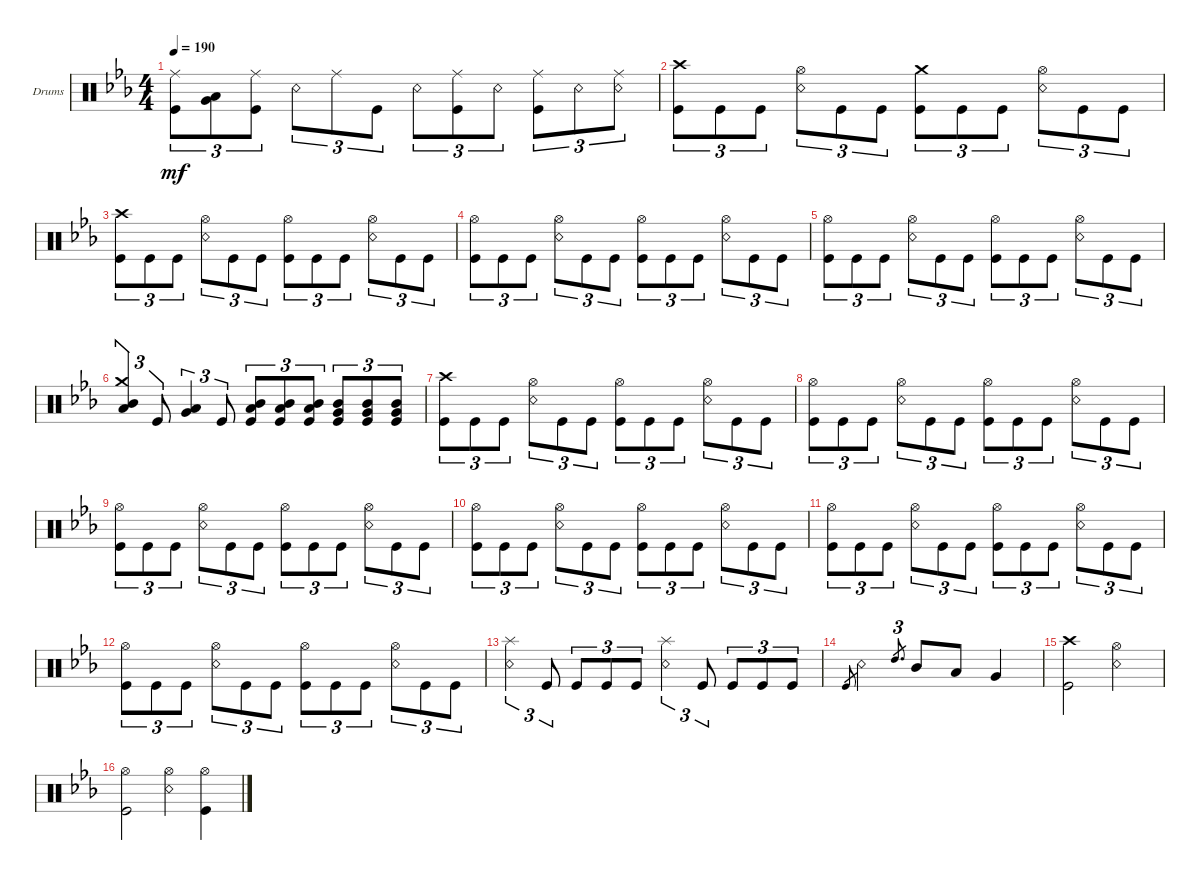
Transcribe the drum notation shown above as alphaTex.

\defaultSystemsLayout 4
\bracketExtendMode groupsimilarinstruments
\firstSystemTrackNameOrientation horizontal
\otherSystemsTrackNameOrientation horizontal
\track ("Drumkit" "Drums") {instrument percussion}
\staff {score}
\articulation defaults
\ts (4 4)
\tempo 190
\clef neutral
\ks cminor
("Ride (middle)" "Kick (hit)").8{tu (3 2) dy mf} ("Low Tom (hit)" "Very Low Tom (hit)").8{tu (3 2)} ("Ride (middle)" "Kick (hit)").8{tu (3 2)} "Snare (rim shot)".8{tu (3 2)} "Ride (middle)".8{tu (3 2)} "Kick (hit)".8{tu (3 2)} "Snare (rim shot)".8{tu (3 2)} ("Ride (middle)" "Kick (hit)").8{tu (3 2)} "Snare (rim shot)".8{tu (3 2)} ("Ride (middle)" "Kick (hit)").8{tu (3 2)} "Snare (rim shot)".8{tu (3 2)} ("Snare (rim shot)" "Ride (middle)").8{tu (3 2)} |
("Kick (hit)" "Crash high (hit)").8{tu (3 2)} "Kick (hit)".8{tu (3 2)} "Kick (hit)".8{tu (3 2)} ("Snare (rim shot)" "Hi-Hat (open)").8{tu (3 2)} "Kick (hit)".8{tu (3 2)} "Kick (hit)".8{tu (3 2)} ("Kick (hit)" "Crash medium (hit)").8{tu (3 2)} "Kick (hit)".8{tu (3 2)} "Kick (hit)".8{tu (3 2)} ("Snare (rim shot)" "Hi-Hat (open)").8{tu (3 2)} "Kick (hit)".8{tu (3 2)} "Kick (hit)".8{tu (3 2)} |
("Kick (hit)" "Crash high (hit)").8{tu (3 2)} "Kick (hit)".8{tu (3 2)} "Kick (hit)".8{tu (3 2)} ("Snare (rim shot)" "Hi-Hat (open)").8{tu (3 2)} "Kick (hit)".8{tu (3 2)} "Kick (hit)".8{tu (3 2)} ("Kick (hit)" "Hi-Hat (open)").8{tu (3 2)} "Kick (hit)".8{tu (3 2)} "Kick (hit)".8{tu (3 2)} ("Snare (rim shot)" "Hi-Hat (open)").8{tu (3 2)} "Kick (hit)".8{tu (3 2)} "Kick (hit)".8{tu (3 2)} |
("Kick (hit)" "Hi-Hat (open)").8{tu (3 2)} "Kick (hit)".8{tu (3 2)} "Kick (hit)".8{tu (3 2)} ("Snare (rim shot)" "Hi-Hat (open)").8{tu (3 2)} "Kick (hit)".8{tu (3 2)} "Kick (hit)".8{tu (3 2)} ("Kick (hit)" "Hi-Hat (open)").8{tu (3 2)} "Kick (hit)".8{tu (3 2)} "Kick (hit)".8{tu (3 2)} ("Snare (rim shot)" "Hi-Hat (open)").8{tu (3 2)} "Kick (hit)".8{tu (3 2)} "Kick (hit)".8{tu (3 2)} |
("Kick (hit)" "Hi-Hat (open)").8{tu (3 2)} "Kick (hit)".8{tu (3 2)} "Kick (hit)".8{tu (3 2)} ("Snare (rim shot)" "Hi-Hat (open)").8{tu (3 2)} "Kick (hit)".8{tu (3 2)} "Kick (hit)".8{tu (3 2)} ("Kick (hit)" "Hi-Hat (open)").8{tu (3 2)} "Kick (hit)".8{tu (3 2)} "Kick (hit)".8{tu (3 2)} ("Snare (rim shot)" "Hi-Hat (open)").8{tu (3 2)} "Kick (hit)".8{tu (3 2)} "Kick (hit)".8{tu (3 2)} |
("Mid Tom (hit)" "Low Tom (hit)" "Crash medium (hit)").4{tu (3 2)} "Kick (hit)".8{tu (3 2)} ("Low Tom (hit)" "Very Low Tom (hit)").4{tu (3 2)} "Kick (hit)".8{tu (3 2)} ("Kick (hit)" "Mid Tom (hit)" "Low Tom (hit)").8{tu (3 2)} ("Kick (hit)" "Mid Tom (hit)" "Low Tom (hit)").8{tu (3 2)} ("Kick (hit)" "Mid Tom (hit)" "Low Tom (hit)").8{tu (3 2)} ("Kick (hit)" "Mid Tom (hit)" "Very Low Tom (hit)").8{tu (3 2)} ("Kick (hit)" "Mid Tom (hit)" "Very Low Tom (hit)").8{tu (3 2)} ("Kick (hit)" "Mid Tom (hit)" "Very Low Tom (hit)").8{tu (3 2)} |
("Kick (hit)" "Crash high (hit)").8{tu (3 2)} "Kick (hit)".8{tu (3 2)} "Kick (hit)".8{tu (3 2)} ("Snare (rim shot)" "Hi-Hat (open)").8{tu (3 2)} "Kick (hit)".8{tu (3 2)} "Kick (hit)".8{tu (3 2)} ("Kick (hit)" "Hi-Hat (open)").8{tu (3 2)} "Kick (hit)".8{tu (3 2)} "Kick (hit)".8{tu (3 2)} ("Snare (rim shot)" "Hi-Hat (open)").8{tu (3 2)} "Kick (hit)".8{tu (3 2)} "Kick (hit)".8{tu (3 2)} |
("Kick (hit)" "Hi-Hat (open)").8{tu (3 2)} "Kick (hit)".8{tu (3 2)} "Kick (hit)".8{tu (3 2)} ("Snare (rim shot)" "Hi-Hat (open)").8{tu (3 2)} "Kick (hit)".8{tu (3 2)} "Kick (hit)".8{tu (3 2)} ("Kick (hit)" "Hi-Hat (open)").8{tu (3 2)} "Kick (hit)".8{tu (3 2)} "Kick (hit)".8{tu (3 2)} ("Snare (rim shot)" "Hi-Hat (open)").8{tu (3 2)} "Kick (hit)".8{tu (3 2)} "Kick (hit)".8{tu (3 2)} |
("Kick (hit)" "Hi-Hat (open)").8{tu (3 2)} "Kick (hit)".8{tu (3 2)} "Kick (hit)".8{tu (3 2)} ("Snare (rim shot)" "Hi-Hat (open)").8{tu (3 2)} "Kick (hit)".8{tu (3 2)} "Kick (hit)".8{tu (3 2)} ("Kick (hit)" "Hi-Hat (open)").8{tu (3 2)} "Kick (hit)".8{tu (3 2)} "Kick (hit)".8{tu (3 2)} ("Snare (rim shot)" "Hi-Hat (open)").8{tu (3 2)} "Kick (hit)".8{tu (3 2)} "Kick (hit)".8{tu (3 2)} |
("Kick (hit)" "Hi-Hat (open)").8{tu (3 2)} "Kick (hit)".8{tu (3 2)} "Kick (hit)".8{tu (3 2)} ("Snare (rim shot)" "Hi-Hat (open)").8{tu (3 2)} "Kick (hit)".8{tu (3 2)} "Kick (hit)".8{tu (3 2)} ("Kick (hit)" "Hi-Hat (open)").8{tu (3 2)} "Kick (hit)".8{tu (3 2)} "Kick (hit)".8{tu (3 2)} ("Snare (rim shot)" "Hi-Hat (open)").8{tu (3 2)} "Kick (hit)".8{tu (3 2)} "Kick (hit)".8{tu (3 2)} |
("Kick (hit)" "Hi-Hat (open)").8{tu (3 2)} "Kick (hit)".8{tu (3 2)} "Kick (hit)".8{tu (3 2)} ("Snare (rim shot)" "Hi-Hat (open)").8{tu (3 2)} "Kick (hit)".8{tu (3 2)} "Kick (hit)".8{tu (3 2)} ("Kick (hit)" "Hi-Hat (open)").8{tu (3 2)} "Kick (hit)".8{tu (3 2)} "Kick (hit)".8{tu (3 2)} ("Snare (rim shot)" "Hi-Hat (open)").8{tu (3 2)} "Kick (hit)".8{tu (3 2)} "Kick (hit)".8{tu (3 2)} |
("Kick (hit)" "Hi-Hat (open)").8{tu (3 2)} "Kick (hit)".8{tu (3 2)} "Kick (hit)".8{tu (3 2)} ("Snare (rim shot)" "Hi-Hat (open)").8{tu (3 2)} "Kick (hit)".8{tu (3 2)} "Kick (hit)".8{tu (3 2)} ("Kick (hit)" "Hi-Hat (open)").8{tu (3 2)} "Kick (hit)".8{tu (3 2)} "Kick (hit)".8{tu (3 2)} ("Snare (rim shot)" "Hi-Hat (open)").8{tu (3 2)} "Kick (hit)".8{tu (3 2)} "Kick (hit)".8{tu (3 2)} |
("Splash (hit)" "Snare (rim shot)").4{tu (3 2)} "Kick (hit)".8{tu (3 2)} "Kick (hit)".8{tu (3 2)} "Kick (hit)".8{tu (3 2)} "Kick (hit)".8{tu (3 2)} ("Splash (hit)" "Snare (rim shot)").4{tu (3 2)} "Kick (hit)".8{tu (3 2)} "Kick (hit)".8{tu (3 2)} "Kick (hit)".8{tu (3 2)} "Kick (hit)".8{tu (3 2)} |
"Kick (hit)".8{tu (3 2) gr} "Snare (rim shot)".2 "High Tom (hit)".8{d tu (3 2) gr} "Mid Tom (hit)".8 "Low Tom (hit)".8 "Very Low Tom (hit)".4 |
("Kick (hit)" "Crash high (hit)").2 ("Snare (rim shot)" "Hi-Hat (open)").2 |
("Kick (hit)" "Hi-Hat (open)").2 ("Snare (rim shot)" "Hi-Hat (open)").4 ("Kick (hit)" "Hi-Hat (open)").4
